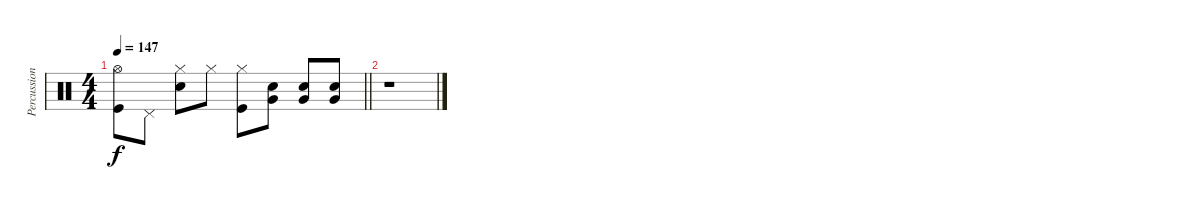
\track ("Percussion" "Percussion") {instrument percussion}
\staff {score}
\articulation defaults
\ts (4 4)
\tempo 147
\clef neutral
\barLineRight lightlight
\ks c
("Hi-Hat (open)" "Kick (hit)").8{dy f} "Pedal Hi-Hat (hit)".8 ("Hi-Hat (closed)" "Electric Snare (hit)").8 "Hi-Hat (closed)".8 ("Hi-Hat (closed)" "Kick (hit)").8 ("Electric Snare (hit)" "Very Low Tom (hit)").8 ("Electric Snare (hit)" "Very Low Tom (hit)").8 ("Electric Snare (hit)" "Very Low Tom (hit)").8 |
r.1
